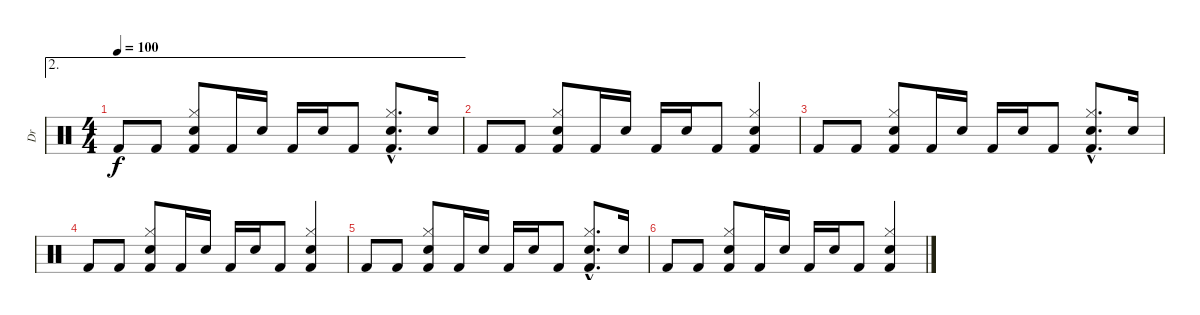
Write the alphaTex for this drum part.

\track ("Dr" "Dr") {instrument percussion}
\staff {score}
\articulation defaults
\ae 2
\ts (4 4)
\tempo 100
\clef neutral
\ks c "Kick (hit) 2".8{dy f} "Kick (hit) 2".8
("Hi-Hat (closed)" "Electric Snare (hit)" "Kick (hit) 2").8 "Kick (hit) 2".16 "Electric Snare (hit)".16 "Kick (hit) 2".16 "Electric Snare (hit)".16 "Kick (hit) 2".8 ("Hi-Hat (closed)"{hac} "Electric Snare (hit)"{hac} "Kick (hit) 2"{hac}).8{d} "Electric Snare (hit)".16 |
"Kick (hit) 2".8 "Kick (hit) 2".8 ("Hi-Hat (closed)" "Electric Snare (hit)" "Kick (hit) 2").8 "Kick (hit) 2".16 "Electric Snare (hit)".16 "Kick (hit) 2".16 "Electric Snare (hit)".16 "Kick (hit) 2".8 ("Hi-Hat (closed)" "Electric Snare (hit)" "Kick (hit) 2").4 |
"Kick (hit) 2".8 "Kick (hit) 2".8 ("Hi-Hat (closed)" "Electric Snare (hit)" "Kick (hit) 2").8 "Kick (hit) 2".16 "Electric Snare (hit)".16 "Kick (hit) 2".16 "Electric Snare (hit)".16 "Kick (hit) 2".8 ("Hi-Hat (closed)"{hac} "Electric Snare (hit)"{hac} "Kick (hit) 2"{hac}).8{d} "Electric Snare (hit)".16 |
"Kick (hit) 2".8 "Kick (hit) 2".8 ("Hi-Hat (closed)" "Electric Snare (hit)" "Kick (hit) 2").8 "Kick (hit) 2".16 "Electric Snare (hit)".16 "Kick (hit) 2".16 "Electric Snare (hit)".16 "Kick (hit) 2".8 ("Hi-Hat (closed)" "Electric Snare (hit)" "Kick (hit) 2").4 |
"Kick (hit) 2".8 "Kick (hit) 2".8 ("Hi-Hat (closed)" "Electric Snare (hit)" "Kick (hit) 2").8 "Kick (hit) 2".16 "Electric Snare (hit)".16 "Kick (hit) 2".16 "Electric Snare (hit)".16 "Kick (hit) 2".8 ("Hi-Hat (closed)"{hac} "Electric Snare (hit)"{hac} "Kick (hit) 2"{hac}).8{d} "Electric Snare (hit)".16 |
"Kick (hit) 2".8 "Kick (hit) 2".8 ("Hi-Hat (closed)" "Electric Snare (hit)" "Kick (hit) 2").8 "Kick (hit) 2".16 "Electric Snare (hit)".16 "Kick (hit) 2".16 "Electric Snare (hit)".16 "Kick (hit) 2".8 ("Hi-Hat (closed)" "Electric Snare (hit)" "Kick (hit) 2").4
